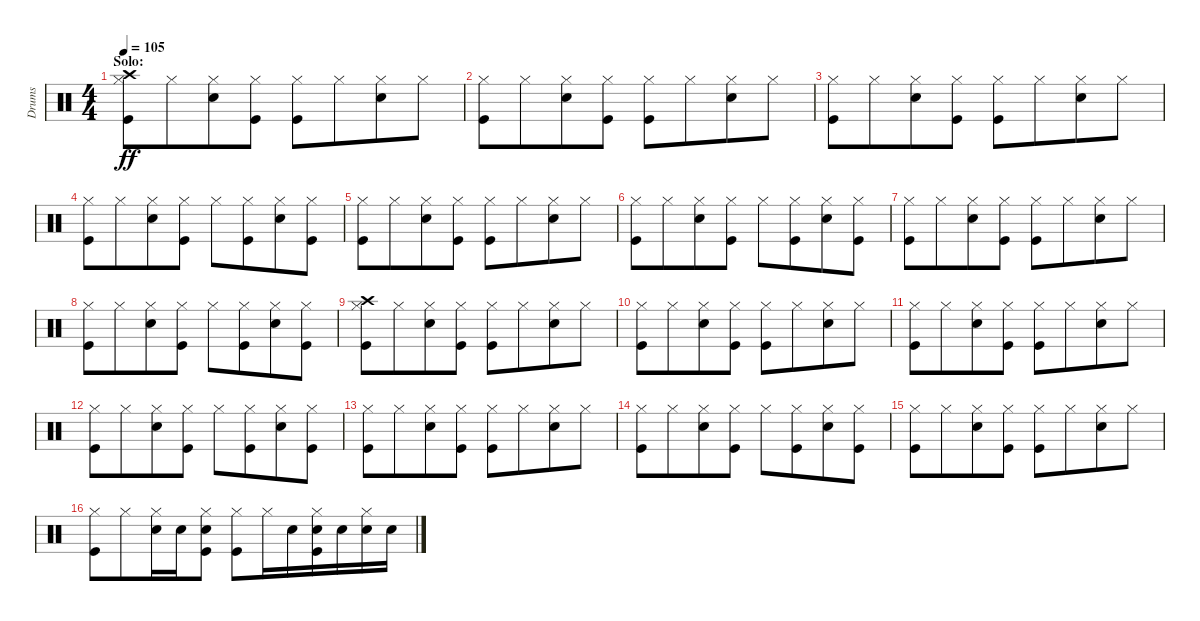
\track ("Drums" "Drums") {instrument percussion}
\staff {score}
\articulation defaults
\ts (4 4)
\section ("" "Solo:")
\tempo 105
\clef neutral
\ks c
("Hi-Hat (closed)" "Crash high (hit)" "Kick (hit)").8{dy ff} "Hi-Hat (closed)".8{beam merge} ("Hi-Hat (closed)" "Snare (hit) 2").8 ("Hi-Hat (closed)" "Kick (hit)").8 ("Hi-Hat (closed)" "Kick (hit)").8 "Hi-Hat (closed)".8{beam merge} ("Hi-Hat (closed)" "Snare (hit) 2").8 "Hi-Hat (closed)".8 |
("Hi-Hat (closed)" "Kick (hit)").8 "Hi-Hat (closed)".8{beam merge} ("Hi-Hat (closed)" "Snare (hit) 2").8 ("Hi-Hat (closed)" "Kick (hit)").8 ("Hi-Hat (closed)" "Kick (hit)").8 "Hi-Hat (closed)".8{beam merge} ("Hi-Hat (closed)" "Snare (hit) 2").8 "Hi-Hat (closed)".8 |
("Hi-Hat (closed)" "Kick (hit)").8 "Hi-Hat (closed)".8{beam merge} ("Hi-Hat (closed)" "Snare (hit) 2").8 ("Hi-Hat (closed)" "Kick (hit)").8 ("Hi-Hat (closed)" "Kick (hit)").8 "Hi-Hat (closed)".8{beam merge} ("Hi-Hat (closed)" "Snare (hit) 2").8 "Hi-Hat (closed)".8 |
("Hi-Hat (closed)" "Kick (hit)").8 "Hi-Hat (closed)".8{beam merge} ("Hi-Hat (closed)" "Snare (hit) 2").8 ("Hi-Hat (closed)" "Kick (hit)").8 "Hi-Hat (closed)".8 ("Hi-Hat (closed)" "Kick (hit)").8{beam merge} ("Hi-Hat (closed)" "Snare (hit) 2").8 ("Hi-Hat (closed)" "Kick (hit)").8 |
("Hi-Hat (closed)" "Kick (hit)").8 "Hi-Hat (closed)".8{beam merge} ("Hi-Hat (closed)" "Snare (hit) 2").8 ("Hi-Hat (closed)" "Kick (hit)").8 ("Hi-Hat (closed)" "Kick (hit)").8 "Hi-Hat (closed)".8{beam merge} ("Hi-Hat (closed)" "Snare (hit) 2").8 "Hi-Hat (closed)".8 |
("Hi-Hat (closed)" "Kick (hit)").8 "Hi-Hat (closed)".8{beam merge} ("Hi-Hat (closed)" "Snare (hit) 2").8 ("Hi-Hat (closed)" "Kick (hit)").8 "Hi-Hat (closed)".8 ("Hi-Hat (closed)" "Kick (hit)").8{beam merge} ("Hi-Hat (closed)" "Snare (hit) 2").8 ("Hi-Hat (closed)" "Kick (hit)").8 |
("Hi-Hat (closed)" "Kick (hit)").8 "Hi-Hat (closed)".8{beam merge} ("Hi-Hat (closed)" "Snare (hit) 2").8 ("Hi-Hat (closed)" "Kick (hit)").8 ("Hi-Hat (closed)" "Kick (hit)").8 "Hi-Hat (closed)".8{beam merge} ("Hi-Hat (closed)" "Snare (hit) 2").8 "Hi-Hat (closed)".8 |
("Hi-Hat (closed)" "Kick (hit)").8 "Hi-Hat (closed)".8{beam merge} ("Hi-Hat (closed)" "Snare (hit) 2").8 ("Hi-Hat (closed)" "Kick (hit)").8 "Hi-Hat (closed)".8 ("Hi-Hat (closed)" "Kick (hit)").8{beam merge} ("Hi-Hat (closed)" "Snare (hit) 2").8 ("Hi-Hat (closed)" "Kick (hit)").8 |
("Hi-Hat (closed)" "Crash high (hit)" "Kick (hit)").8 "Hi-Hat (closed)".8{beam merge} ("Hi-Hat (closed)" "Snare (hit) 2").8 ("Hi-Hat (closed)" "Kick (hit)").8 ("Hi-Hat (closed)" "Kick (hit)").8 "Hi-Hat (closed)".8{beam merge} ("Hi-Hat (closed)" "Snare (hit) 2").8 "Hi-Hat (closed)".8 |
("Hi-Hat (closed)" "Kick (hit)").8 "Hi-Hat (closed)".8{beam merge} ("Hi-Hat (closed)" "Snare (hit) 2").8 ("Hi-Hat (closed)" "Kick (hit)").8 ("Hi-Hat (closed)" "Kick (hit)").8 "Hi-Hat (closed)".8{beam merge} ("Hi-Hat (closed)" "Snare (hit) 2").8 "Hi-Hat (closed)".8 |
("Hi-Hat (closed)" "Kick (hit)").8 "Hi-Hat (closed)".8{beam merge} ("Hi-Hat (closed)" "Snare (hit) 2").8 ("Hi-Hat (closed)" "Kick (hit)").8 ("Hi-Hat (closed)" "Kick (hit)").8 "Hi-Hat (closed)".8{beam merge} ("Hi-Hat (closed)" "Snare (hit) 2").8 "Hi-Hat (closed)".8 |
("Hi-Hat (closed)" "Kick (hit)").8 "Hi-Hat (closed)".8{beam merge} ("Hi-Hat (closed)" "Snare (hit) 2").8 ("Hi-Hat (closed)" "Kick (hit)").8 "Hi-Hat (closed)".8 ("Hi-Hat (closed)" "Kick (hit)").8{beam merge} ("Hi-Hat (closed)" "Snare (hit) 2").8 ("Hi-Hat (closed)" "Kick (hit)").8 |
("Hi-Hat (closed)" "Kick (hit)").8 "Hi-Hat (closed)".8{beam merge} ("Hi-Hat (closed)" "Snare (hit) 2").8 ("Hi-Hat (closed)" "Kick (hit)").8 ("Hi-Hat (closed)" "Kick (hit)").8 "Hi-Hat (closed)".8{beam merge} ("Hi-Hat (closed)" "Snare (hit) 2").8 "Hi-Hat (closed)".8 |
("Hi-Hat (closed)" "Kick (hit)").8 "Hi-Hat (closed)".8{beam merge} ("Hi-Hat (closed)" "Snare (hit) 2").8 ("Hi-Hat (closed)" "Kick (hit)").8 "Hi-Hat (closed)".8 ("Hi-Hat (closed)" "Kick (hit)").8{beam merge} ("Hi-Hat (closed)" "Snare (hit) 2").8 ("Hi-Hat (closed)" "Kick (hit)").8 |
("Hi-Hat (closed)" "Kick (hit)").8 "Hi-Hat (closed)".8{beam merge} ("Hi-Hat (closed)" "Snare (hit) 2").8 ("Hi-Hat (closed)" "Kick (hit)").8 ("Hi-Hat (closed)" "Kick (hit)").8 "Hi-Hat (closed)".8{beam merge} ("Hi-Hat (closed)" "Snare (hit) 2").8 "Hi-Hat (closed)".8 |
("Hi-Hat (closed)" "Kick (hit)").8 "Hi-Hat (closed)".8{beam merge} ("Hi-Hat (closed)" "Snare (hit) 2").16{beam merge} "Snare (hit) 2".16 ("Hi-Hat (closed)" "Snare (hit) 2" "Kick (hit)").8 ("Hi-Hat (closed)" "Kick (hit)").8 "Hi-Hat (closed)".16 "Snare (hit) 2".16{beam merge} ("Hi-Hat (closed)" "Snare (hit) 2" "Kick (hit)").16{beam merge} "Snare (hit) 2".16 ("Hi-Hat (closed)" "Snare (hit) 2").16 "Snare (hit) 2".16
